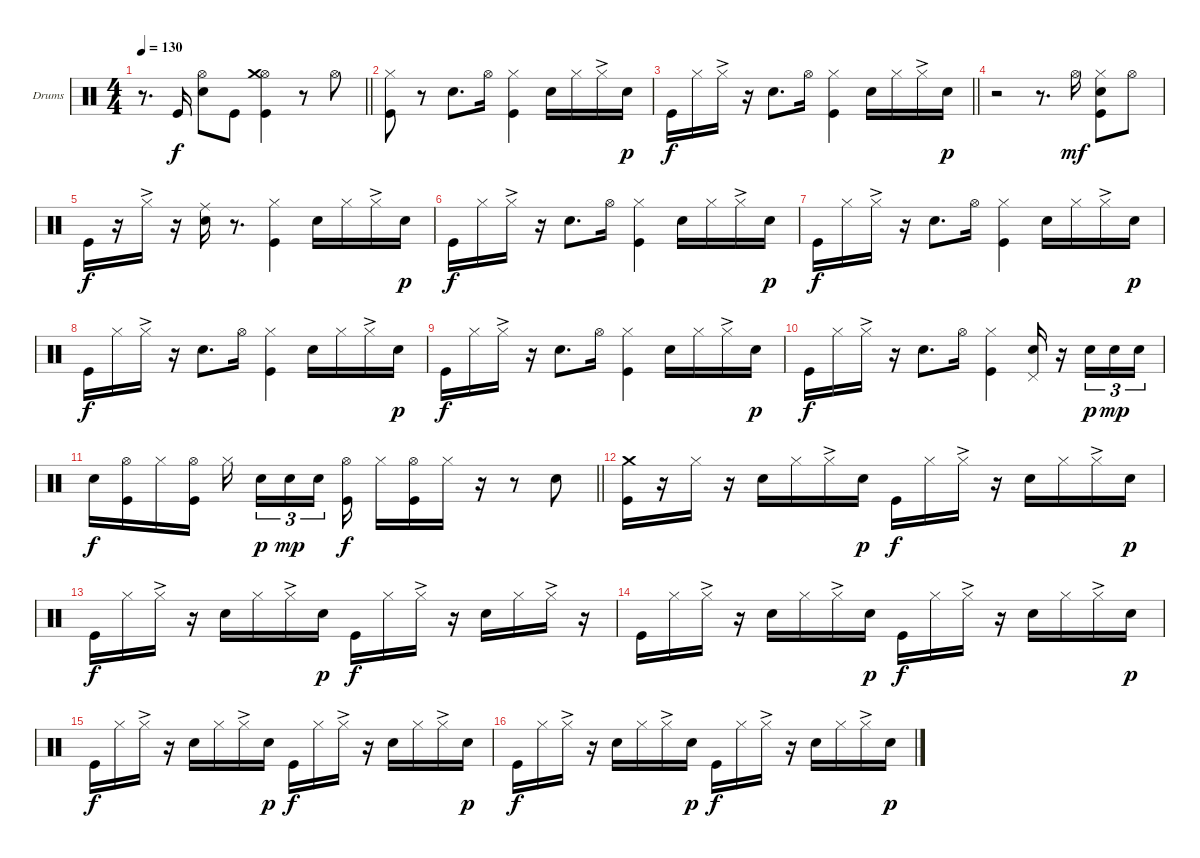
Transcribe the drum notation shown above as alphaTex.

\defaultSystemsLayout 4
\bracketExtendMode groupsimilarinstruments
\firstSystemTrackNameOrientation horizontal
\otherSystemsTrackNameOrientation horizontal
\track ("Drumkit" "Drums") {instrument percussion}
\staff {score}
\articulation defaults
\ts (4 4)
\tempo 130
\clef neutral
\barLineRight lightlight
\ks c
r.8{d dy f} "Kick (hit)".16 ("Snare (hit) 2" "Hi-Hat (open)").8 "Kick (hit)".8 ("Hi-Hat (open)" "Kick (hit)" "Crash medium (hit)").4 r.8 "Hi-Hat (open)".8 |
("Kick (hit)" "Hi-Hat (closed)").8 r.8 "Snare (hit) 2".8{d} "Hi-Hat (open)".16 ("Hi-Hat (closed)" "Kick (hit)").4 "Snare (hit) 2".16 "Hi-Hat (closed)".16 "Hi-Hat (closed)"{ac}.16 "Snare (hit) 2".16{dy p} |
\barLineRight lightlight "Kick (hit)".16{dy f} "Hi-Hat (closed)".16 "Hi-Hat (closed)"{ac}.16
r.16 "Snare (hit) 2".8{d} "Hi-Hat (open)".16 ("Hi-Hat (closed)" "Kick (hit)").4 "Snare (hit) 2".16 "Hi-Hat (closed)".16 "Hi-Hat (closed)"{ac}.16 "Snare (hit) 2".16{dy p} |
r.2 r.8{d} "Hi-Hat (open)".16{dy mf} ("Hi-Hat (closed)" "Snare (hit) 2" "Kick (hit)").8 "Hi-Hat (open)".8 |
"Kick (hit)".16{dy f} r.16 "Hi-Hat (closed)"{ac}.16 r.16 ("Snare (hit) 2" "Ride (middle)").16 r.8{d} ("Hi-Hat (closed)" "Kick (hit)").4 "Snare (hit) 2".16 "Hi-Hat (closed)".16 "Hi-Hat (closed)"{ac}.16 "Snare (hit) 2".16{dy p} |
"Kick (hit)".16{dy f} "Hi-Hat (closed)".16 "Hi-Hat (closed)"{ac}.16 r.16 "Snare (hit) 2".8{d} "Hi-Hat (open)".16 ("Hi-Hat (closed)" "Kick (hit)").4 "Snare (hit) 2".16 "Hi-Hat (closed)".16 "Hi-Hat (closed)"{ac}.16 "Snare (hit) 2".16{dy p} |
"Kick (hit)".16{dy f} "Hi-Hat (closed)".16 "Hi-Hat (closed)"{ac}.16 r.16 "Snare (hit) 2".8{d} "Hi-Hat (open)".16 ("Hi-Hat (closed)" "Kick (hit)").4 "Snare (hit) 2".16 "Hi-Hat (closed)".16 "Hi-Hat (closed)"{ac}.16 "Snare (hit) 2".16{dy p} |
"Kick (hit)".16{dy f} "Hi-Hat (closed)".16 "Hi-Hat (closed)"{ac}.16 r.16 "Snare (hit) 2".8{d} "Hi-Hat (open)".16 ("Hi-Hat (closed)" "Kick (hit)").4 "Snare (hit) 2".16 "Hi-Hat (closed)".16 "Hi-Hat (closed)"{ac}.16 "Snare (hit) 2".16{dy p} |
"Kick (hit)".16{dy f} "Hi-Hat (closed)".16 "Hi-Hat (closed)"{ac}.16 r.16 "Snare (hit) 2".8{d} "Hi-Hat (open)".16 ("Hi-Hat (closed)" "Kick (hit)").4 "Snare (hit) 2".16 "Hi-Hat (closed)".16 "Hi-Hat (closed)"{ac}.16 "Snare (hit) 2".16{dy p} |
"Kick (hit)".16{dy f} "Hi-Hat (closed)".16 "Hi-Hat (closed)"{ac}.16 r.16 "Snare (hit) 2".8{d} "Hi-Hat (open)".16 ("Hi-Hat (closed)" "Kick (hit)").4 ("Snare (hit) 2" "Pedal Hi-Hat (hit)").16 r.16 "Snare (hit) 2".16{tu (3 2) dy p} "Snare (hit) 2".16{tu (3 2) dy mp} "Snare (hit) 2".16{tu (3 2)} |
\barLineRight lightlight "Snare (hit) 2".16{dy f}
("Kick (hit)" "Hi-Hat (open)").16 "Hi-Hat (closed)".16 ("Kick (hit)" "Hi-Hat (open)").16 "Hi-Hat (closed)".16 "Snare (hit) 2".16{tu (3 2) dy p} "Snare (hit) 2".16{tu (3 2) dy mp} "Snare (hit) 2".16{tu (3 2)} ("Kick (hit)" "Hi-Hat (open)").16{dy f} "Hi-Hat (closed)".16 ("Kick (hit)" "Hi-Hat (open)").16 "Hi-Hat (closed)".16 r.16 r.8 "Snare (hit) 2".8 |
("Crash medium (hit)" "Kick (hit)").16 r.16 "Hi-Hat (closed)".16 r.16 "Snare (hit) 2".16 "Hi-Hat (closed)".16 "Hi-Hat (closed)"{ac}.16 "Snare (hit) 2".16{dy p} "Kick (hit)".16{dy f} "Hi-Hat (closed)".16 "Hi-Hat (closed)"{ac}.16 r.16 "Snare (hit) 2".16 "Hi-Hat (closed)".16 "Hi-Hat (closed)"{ac}.16 "Snare (hit) 2".16{dy p} |
"Kick (hit)".16{dy f} "Hi-Hat (closed)".16 "Hi-Hat (closed)"{ac}.16 r.16 "Snare (hit) 2".16 "Hi-Hat (closed)".16 "Hi-Hat (closed)"{ac}.16 "Snare (hit) 2".16{dy p} "Kick (hit)".16{dy f} "Hi-Hat (closed)".16 "Hi-Hat (closed)"{ac}.16 r.16 "Snare (hit) 2".16 "Hi-Hat (closed)".16 "Hi-Hat (closed)"{ac}.16 r.16 |
"Kick (hit)".16 "Hi-Hat (closed)".16 "Hi-Hat (closed)"{ac}.16 r.16 "Snare (hit) 2".16 "Hi-Hat (closed)".16 "Hi-Hat (closed)"{ac}.16 "Snare (hit) 2".16{dy p} "Kick (hit)".16{dy f} "Hi-Hat (closed)".16 "Hi-Hat (closed)"{ac}.16 r.16 "Snare (hit) 2".16 "Hi-Hat (closed)".16 "Hi-Hat (closed)"{ac}.16 "Snare (hit) 2".16{dy p} |
"Kick (hit)".16{dy f} "Hi-Hat (closed)".16 "Hi-Hat (closed)"{ac}.16 r.16 "Snare (hit) 2".16 "Hi-Hat (closed)".16 "Hi-Hat (closed)"{ac}.16 "Snare (hit) 2".16{dy p} "Kick (hit)".16{dy f} "Hi-Hat (closed)".16 "Hi-Hat (closed)"{ac}.16 r.16 "Snare (hit) 2".16 "Hi-Hat (closed)".16 "Hi-Hat (closed)"{ac}.16 "Snare (hit) 2".16{dy p} |
"Kick (hit)".16{dy f} "Hi-Hat (closed)".16 "Hi-Hat (closed)"{ac}.16 r.16 "Snare (hit) 2".16 "Hi-Hat (closed)".16 "Hi-Hat (closed)"{ac}.16 "Snare (hit) 2".16{dy p} "Kick (hit)".16{dy f} "Hi-Hat (closed)".16 "Hi-Hat (closed)"{ac}.16 r.16 "Snare (hit) 2".16 "Hi-Hat (closed)".16 "Hi-Hat (closed)"{ac}.16 "Snare (hit) 2".16{dy p}
